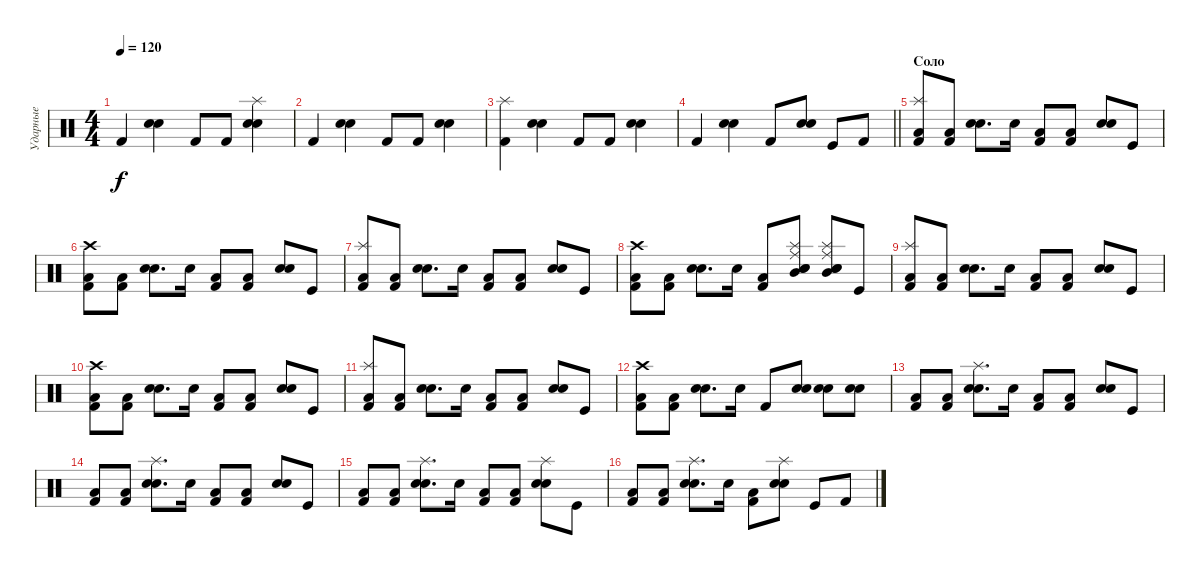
\track ("Ударные" "Ударные") {instrument percussion}
\staff {score}
\articulation defaults
\ts (4 4)
\tempo 120
\clef neutral
\ks c "Kick (hit) 2".4{dy f}
("Electric Snare (hit)" "Snare (hit) 2").4 "Kick (hit) 2".8 "Kick (hit) 2".8 ("Splash (hit)" "Electric Snare (hit)" "Snare (hit) 2").4 |
"Kick (hit) 2".4 ("Electric Snare (hit)" "Snare (hit) 2").4 "Kick (hit) 2".8 "Kick (hit) 2".8 ("Electric Snare (hit)" "Snare (hit) 2").4 |
("Splash (hit)" "Kick (hit) 2").4 ("Electric Snare (hit)" "Snare (hit) 2").4 "Kick (hit) 2".8 "Kick (hit) 2".8 ("Electric Snare (hit)" "Snare (hit) 2").4 |
\barLineRight lightlight "Kick (hit) 2".4
("Electric Snare (hit)" "Snare (hit) 2").4 "Kick (hit) 2".8 ("Electric Snare (hit)" "Snare (hit) 2").8 "Kick (hit)".8 "Kick (hit) 2".8 |
\section ("" "Соло")
("Splash (hit)" "Low Floor Tom (hit)" "Kick (hit) 2").8 ("Low Floor Tom (hit)" "Kick (hit) 2").8 ("Electric Snare (hit)" "Snare (hit) 2").8{d} "Electric Snare (hit)".16 ("Low Floor Tom (hit)" "Kick (hit) 2").8 ("Low Floor Tom (hit)" "Kick (hit) 2").8 ("Electric Snare (hit)" "Snare (hit) 2").8 "Kick (hit)".8 |
("Crash high (hit)" "Low Floor Tom (hit)" "Kick (hit) 2").8 ("Low Floor Tom (hit)" "Kick (hit) 2").8 ("Electric Snare (hit)" "Snare (hit) 2").8{d} "Electric Snare (hit)".16 ("Low Floor Tom (hit)" "Kick (hit) 2").8 ("Low Floor Tom (hit)" "Kick (hit) 2").8 ("Electric Snare (hit)" "Snare (hit) 2").8 "Kick (hit)".8 |
("Splash (hit)" "Low Floor Tom (hit)" "Kick (hit) 2").8 ("Low Floor Tom (hit)" "Kick (hit) 2").8 ("Electric Snare (hit)" "Snare (hit) 2").8{d} "Electric Snare (hit)".16 ("Low Floor Tom (hit)" "Kick (hit) 2").8 ("Low Floor Tom (hit)" "Kick (hit) 2").8 ("Electric Snare (hit)" "Snare (hit) 2").8 "Kick (hit)".8 |
("Crash high (hit)" "Low Floor Tom (hit)" "Kick (hit) 2").8 ("Low Floor Tom (hit)" "Kick (hit) 2").8 ("Electric Snare (hit)" "Snare (hit) 2").8{d} "Electric Snare (hit)".16 ("Low Floor Tom (hit)" "Kick (hit) 2").8 ("Splash (hit)" "Ride (middle)" "Electric Snare (hit)" "Snare (hit) 2" "Mid Tom (hit)").8 ("Splash (hit)" "Ride (middle)" "Electric Snare (hit)" "Snare (hit) 2" "Mid Tom (hit)").8 "Kick (hit)".8 |
("Splash (hit)" "Low Floor Tom (hit)" "Kick (hit) 2").8 ("Low Floor Tom (hit)" "Kick (hit) 2").8 ("Electric Snare (hit)" "Snare (hit) 2").8{d} "Electric Snare (hit)".16 ("Low Floor Tom (hit)" "Kick (hit) 2").8 ("Low Floor Tom (hit)" "Kick (hit) 2").8 ("Electric Snare (hit)" "Snare (hit) 2").8 "Kick (hit)".8 |
("Crash high (hit)" "Low Floor Tom (hit)" "Kick (hit) 2").8 ("Low Floor Tom (hit)" "Kick (hit) 2").8 ("Electric Snare (hit)" "Snare (hit) 2").8{d} "Electric Snare (hit)".16 ("Low Floor Tom (hit)" "Kick (hit) 2").8 ("Low Floor Tom (hit)" "Kick (hit) 2").8 ("Electric Snare (hit)" "Snare (hit) 2").8 "Kick (hit)".8 |
("Splash (hit)" "Low Floor Tom (hit)" "Kick (hit) 2").8 ("Low Floor Tom (hit)" "Kick (hit) 2").8 ("Electric Snare (hit)" "Snare (hit) 2").8{d} "Electric Snare (hit)".16 ("Low Floor Tom (hit)" "Kick (hit) 2").8 ("Low Floor Tom (hit)" "Kick (hit) 2").8 ("Electric Snare (hit)" "Snare (hit) 2").8 "Kick (hit)".8 |
("Crash high (hit)" "Low Floor Tom (hit)" "Kick (hit) 2").8 ("Low Floor Tom (hit)" "Kick (hit) 2").8 ("Electric Snare (hit)" "Snare (hit) 2").8{d} "Electric Snare (hit)".16 "Kick (hit) 2".8 ("Electric Snare (hit)" "Snare (hit) 2").8 ("Electric Snare (hit)" "Snare (hit) 2").8 ("Electric Snare (hit)" "Snare (hit) 2").8 |
("Low Floor Tom (hit)" "Kick (hit) 2").8 ("Low Floor Tom (hit)" "Kick (hit) 2").8 ("Splash (hit)" "Electric Snare (hit)" "Snare (hit) 2").8{d} "Electric Snare (hit)".16 ("Low Floor Tom (hit)" "Kick (hit) 2").8 ("Low Floor Tom (hit)" "Kick (hit) 2").8 ("Electric Snare (hit)" "Snare (hit) 2").8 "Kick (hit)".8 |
("Low Floor Tom (hit)" "Kick (hit) 2").8 ("Low Floor Tom (hit)" "Kick (hit) 2").8 ("Splash (hit)" "Electric Snare (hit)" "Snare (hit) 2").8{d} "Electric Snare (hit)".16 ("Low Floor Tom (hit)" "Kick (hit) 2").8 ("Low Floor Tom (hit)" "Kick (hit) 2").8 ("Electric Snare (hit)" "Snare (hit) 2").8 "Kick (hit)".8 |
("Low Floor Tom (hit)" "Kick (hit) 2").8 ("Low Floor Tom (hit)" "Kick (hit) 2").8 ("Splash (hit)" "Electric Snare (hit)" "Snare (hit) 2").8{d} "Electric Snare (hit)".16 ("Low Floor Tom (hit)" "Kick (hit) 2").8 ("Low Floor Tom (hit)" "Kick (hit) 2").8 ("Splash (hit)" "Electric Snare (hit)" "Snare (hit) 2").8 "Kick (hit)".8 |
("Low Floor Tom (hit)" "Kick (hit) 2").8 ("Low Floor Tom (hit)" "Kick (hit) 2").8 ("Splash (hit)" "Electric Snare (hit)" "Snare (hit) 2").8{d} "Electric Snare (hit)".16 ("Low Floor Tom (hit)" "Kick (hit) 2").8 ("Splash (hit)" "Electric Snare (hit)" "Snare (hit) 2").8 "Kick (hit)".8 "Kick (hit) 2".8
